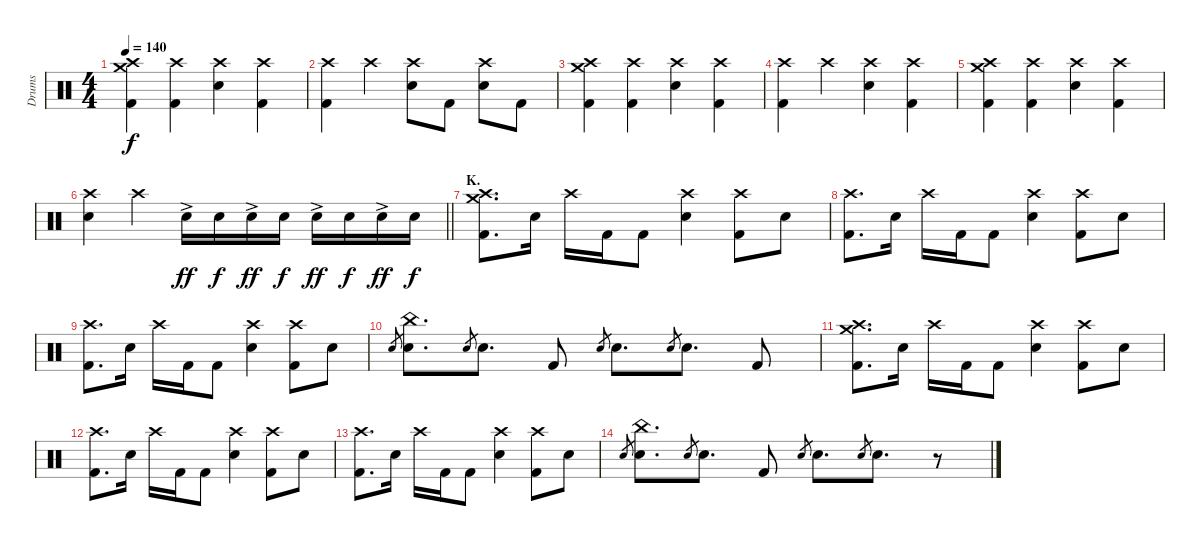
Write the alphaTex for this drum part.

\track ("Drums" "Drums") {instrument percussion}
\staff {score}
\articulation defaults
\ts (4 4)
\tempo 140
\clef neutral
\ks c
("Crash medium (hit)" "Crash high (hit)" "Kick (hit) 2").4{dy f} ("Crash high (hit)" "Kick (hit) 2").4 ("Crash high (hit)" "Electric Snare (hit)").4 ("Crash high (hit)" "Kick (hit) 2").4 |
("Crash high (hit)" "Kick (hit) 2").4 "Crash high (hit)".4 ("Crash high (hit)" "Electric Snare (hit)").8 "Kick (hit) 2".8 ("Crash high (hit)" "Electric Snare (hit)").8 "Kick (hit) 2".8 |
("Crash medium (hit)" "Crash high (hit)" "Kick (hit) 2").4 ("Crash high (hit)" "Kick (hit) 2").4 ("Crash high (hit)" "Electric Snare (hit)").4 ("Crash high (hit)" "Kick (hit) 2").4 |
("Crash high (hit)" "Kick (hit) 2").4 "Crash high (hit)".4 ("Crash high (hit)" "Electric Snare (hit)").4 ("Crash high (hit)" "Kick (hit) 2").4 |
("Crash medium (hit)" "Crash high (hit)" "Kick (hit) 2").4 ("Crash high (hit)" "Kick (hit) 2").4 ("Crash high (hit)" "Electric Snare (hit)").4 ("Crash high (hit)" "Kick (hit) 2").4 |
\barLineRight lightlight
("Crash high (hit)" "Electric Snare (hit)").4 "Crash high (hit)".4 "Electric Snare (hit)"{ac}.16{dy ff} "Electric Snare (hit)".16{dy f} "Electric Snare (hit)"{ac}.16{dy ff} "Electric Snare (hit)".16{dy f} "Electric Snare (hit)"{ac}.16{dy ff} "Electric Snare (hit)".16{dy f} "Electric Snare (hit)"{ac}.16{dy ff} "Electric Snare (hit)".16{dy f} |
\section ("" "K.")
("Crash medium (hit)" "Crash high (hit)" "Kick (hit) 2").8{d} "Electric Snare (hit)".16 "Crash high (hit)".16 "Kick (hit) 2".16 "Kick (hit) 2".8 ("Crash high (hit)" "Electric Snare (hit)").4 ("Crash high (hit)" "Kick (hit) 2").8 "Electric Snare (hit)".8 |
("Crash high (hit)" "Kick (hit) 2").8{d} "Electric Snare (hit)".16 "Crash high (hit)".16 "Kick (hit) 2".16 "Kick (hit) 2".8 ("Crash high (hit)" "Electric Snare (hit)").4 ("Crash high (hit)" "Kick (hit) 2").8 "Electric Snare (hit)".8 |
("Crash high (hit)" "Kick (hit) 2").8{d} "Electric Snare (hit)".16 "Crash high (hit)".16 "Kick (hit) 2".16 "Kick (hit) 2".8 ("Crash high (hit)" "Electric Snare (hit)").4 ("Crash high (hit)" "Kick (hit) 2").8 "Electric Snare (hit)".8 |
"Electric Snare (hit)".8{gr} ("China (hit)" "Electric Snare (hit)").8{d} "Electric Snare (hit)".8{gr} "Electric Snare (hit)".8{d} "Kick (hit) 2".8 "Electric Snare (hit)".8{gr} "Electric Snare (hit)".8{d} "Electric Snare (hit)".8{gr} "Electric Snare (hit)".8{d} "Kick (hit) 2".8 |
("Crash medium (hit)" "Crash high (hit)" "Kick (hit) 2").8{d} "Electric Snare (hit)".16 "Crash high (hit)".16 "Kick (hit) 2".16 "Kick (hit) 2".8 ("Crash high (hit)" "Electric Snare (hit)").4 ("Crash high (hit)" "Kick (hit) 2").8 "Electric Snare (hit)".8 |
("Crash high (hit)" "Kick (hit) 2").8{d} "Electric Snare (hit)".16 "Crash high (hit)".16 "Kick (hit) 2".16 "Kick (hit) 2".8 ("Crash high (hit)" "Electric Snare (hit)").4 ("Crash high (hit)" "Kick (hit) 2").8 "Electric Snare (hit)".8 |
("Crash high (hit)" "Kick (hit) 2").8{d} "Electric Snare (hit)".16 "Crash high (hit)".16 "Kick (hit) 2".16 "Kick (hit) 2".8 ("Crash high (hit)" "Electric Snare (hit)").4 ("Crash high (hit)" "Kick (hit) 2").8 "Electric Snare (hit)".8 |
"Electric Snare (hit)".8{gr} ("China (hit)" "Electric Snare (hit)").8{d} "Electric Snare (hit)".8{gr} "Electric Snare (hit)".8{d} "Kick (hit) 2".8 "Electric Snare (hit)".8{gr} "Electric Snare (hit)".8{d} "Electric Snare (hit)".8{gr} "Electric Snare (hit)".8{d} r.8
